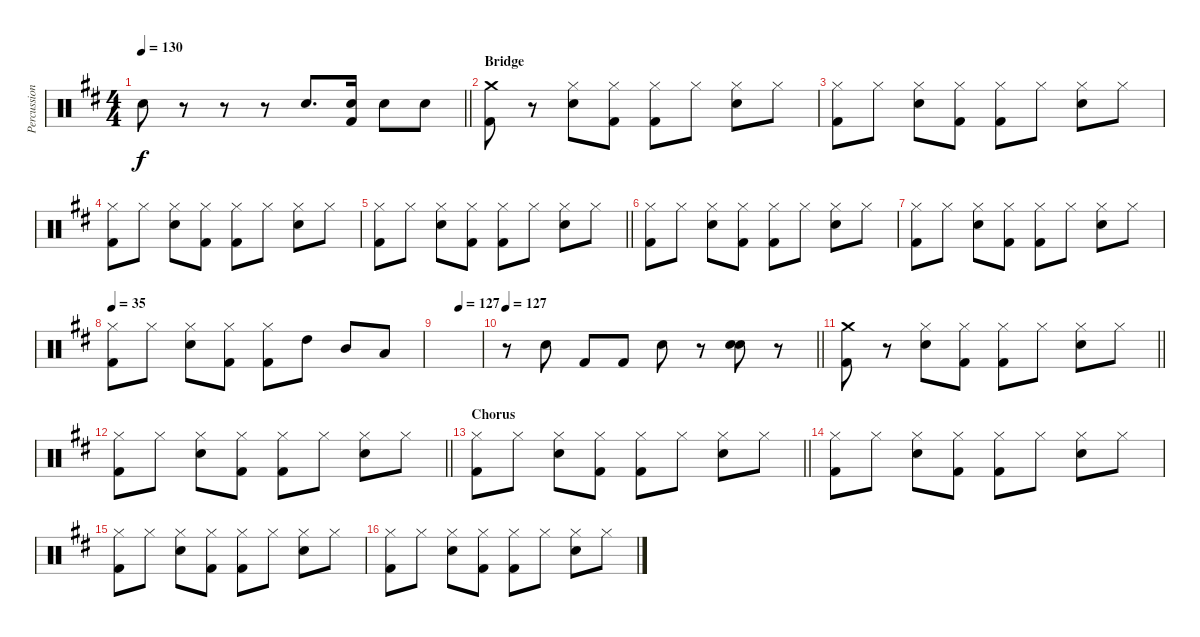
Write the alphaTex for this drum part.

\track ("Percussion" "Percussion") {instrument percussion}
\staff {score}
\articulation defaults
\ts (4 4)
\tempo 130
\clef neutral
\barLineRight lightlight
\ks d "Electric Snare (hit)".8{dy f}
r.8 r.8 r.8 "Electric Snare (hit)".8{d} ("Electric Snare (hit)" "Kick (hit) 2").16 "Electric Snare (hit)".8 "Electric Snare (hit)".8 |
\section ("" "Bridge")
("Crash medium (hit)" "Kick (hit) 2").8 r.8 ("Hi-Hat (closed)" "Electric Snare (hit)").8 ("Hi-Hat (closed)" "Kick (hit) 2").8 ("Hi-Hat (closed)" "Kick (hit) 2").8 "Hi-Hat (closed)".8 ("Hi-Hat (closed)" "Electric Snare (hit)").8 "Hi-Hat (closed)".8 |
("Hi-Hat (closed)" "Kick (hit) 2").8 "Hi-Hat (closed)".8 ("Hi-Hat (closed)" "Electric Snare (hit)").8 ("Hi-Hat (closed)" "Kick (hit) 2").8 ("Hi-Hat (closed)" "Kick (hit) 2").8 "Hi-Hat (closed)".8 ("Hi-Hat (closed)" "Electric Snare (hit)").8 "Hi-Hat (closed)".8 |
("Hi-Hat (closed)" "Kick (hit) 2").8 "Hi-Hat (closed)".8 ("Hi-Hat (closed)" "Electric Snare (hit)").8 ("Hi-Hat (closed)" "Kick (hit) 2").8 ("Hi-Hat (closed)" "Kick (hit) 2").8 "Hi-Hat (closed)".8 ("Hi-Hat (closed)" "Electric Snare (hit)").8 "Hi-Hat (closed)".8 |
\barLineRight lightlight
("Hi-Hat (closed)" "Kick (hit) 2").8 "Hi-Hat (closed)".8 ("Hi-Hat (closed)" "Electric Snare (hit)").8 ("Hi-Hat (closed)" "Kick (hit) 2").8 ("Hi-Hat (closed)" "Kick (hit) 2").8 "Hi-Hat (closed)".8 ("Hi-Hat (closed)" "Electric Snare (hit)").8 "Hi-Hat (closed)".8 |
("Hi-Hat (closed)" "Kick (hit) 2").8 "Hi-Hat (closed)".8 ("Hi-Hat (closed)" "Electric Snare (hit)").8 ("Hi-Hat (closed)" "Kick (hit) 2").8 ("Hi-Hat (closed)" "Kick (hit) 2").8 "Hi-Hat (closed)".8 ("Hi-Hat (closed)" "Electric Snare (hit)").8 "Hi-Hat (closed)".8 |
("Hi-Hat (closed)" "Kick (hit) 2").8 "Hi-Hat (closed)".8 ("Hi-Hat (closed)" "Electric Snare (hit)").8 ("Hi-Hat (closed)" "Kick (hit) 2").8 ("Hi-Hat (closed)" "Kick (hit) 2").8 "Hi-Hat (closed)".8 ("Hi-Hat (closed)" "Electric Snare (hit)").8 "Hi-Hat (closed)".8 |
\tempo 35
("Hi-Hat (closed)" "Kick (hit) 2").8 "Hi-Hat (closed)".8 ("Hi-Hat (closed)" "Electric Snare (hit)").8 ("Hi-Hat (closed)" "Kick (hit) 2").8 ("Hi-Hat (closed)" "Kick (hit) 2").8 "High Tom (hit)".8 "Mid Tom (hit)".8 "Low Tom (hit)".8 |
\tempo (127 0.5)
|
\tempo 127
\barLineRight lightlight
r.8 "Electric Snare (hit)".8 "Kick (hit) 2".8 "Kick (hit) 2".8 "Electric Snare (hit)".8 r.8 ("Electric Snare (hit)" "Electric Snare (hit)").8 r.8 |
\barLineRight lightlight
("Crash medium (hit)" "Kick (hit) 2").8 r.8 ("Hi-Hat (closed)" "Electric Snare (hit)").8 ("Hi-Hat (closed)" "Kick (hit) 2").8 ("Hi-Hat (closed)" "Kick (hit) 2").8 "Hi-Hat (closed)".8 ("Hi-Hat (closed)" "Electric Snare (hit)").8 "Hi-Hat (closed)".8 |
\barLineRight lightlight
("Hi-Hat (closed)" "Kick (hit) 2").8 "Hi-Hat (closed)".8 ("Hi-Hat (closed)" "Electric Snare (hit)").8 ("Hi-Hat (closed)" "Kick (hit) 2").8 ("Hi-Hat (closed)" "Kick (hit) 2").8 "Hi-Hat (closed)".8 ("Hi-Hat (closed)" "Electric Snare (hit)").8 "Hi-Hat (closed)".8 |
\section ("" "Chorus")
\barLineRight lightlight
("Hi-Hat (closed)" "Kick (hit) 2").8 "Hi-Hat (closed)".8 ("Hi-Hat (closed)" "Electric Snare (hit)").8 ("Hi-Hat (closed)" "Kick (hit) 2").8 ("Hi-Hat (closed)" "Kick (hit) 2").8 "Hi-Hat (closed)".8 ("Hi-Hat (closed)" "Electric Snare (hit)").8 "Hi-Hat (closed)".8 |
\section ("" "")
("Hi-Hat (closed)" "Kick (hit) 2").8 "Hi-Hat (closed)".8 ("Hi-Hat (closed)" "Electric Snare (hit)").8 ("Hi-Hat (closed)" "Kick (hit) 2").8 ("Hi-Hat (closed)" "Kick (hit) 2").8 "Hi-Hat (closed)".8 ("Hi-Hat (closed)" "Electric Snare (hit)").8 "Hi-Hat (closed)".8 |
("Hi-Hat (closed)" "Kick (hit) 2").8 "Hi-Hat (closed)".8 ("Hi-Hat (closed)" "Electric Snare (hit)").8 ("Hi-Hat (closed)" "Kick (hit) 2").8 ("Hi-Hat (closed)" "Kick (hit) 2").8 "Hi-Hat (closed)".8 ("Hi-Hat (closed)" "Electric Snare (hit)").8 "Hi-Hat (closed)".8 |
("Hi-Hat (closed)" "Kick (hit) 2").8 "Hi-Hat (closed)".8 ("Hi-Hat (closed)" "Electric Snare (hit)").8 ("Hi-Hat (closed)" "Kick (hit) 2").8 ("Hi-Hat (closed)" "Kick (hit) 2").8 "Hi-Hat (closed)".8 ("Hi-Hat (closed)" "Electric Snare (hit)").8 "Hi-Hat (closed)".8
